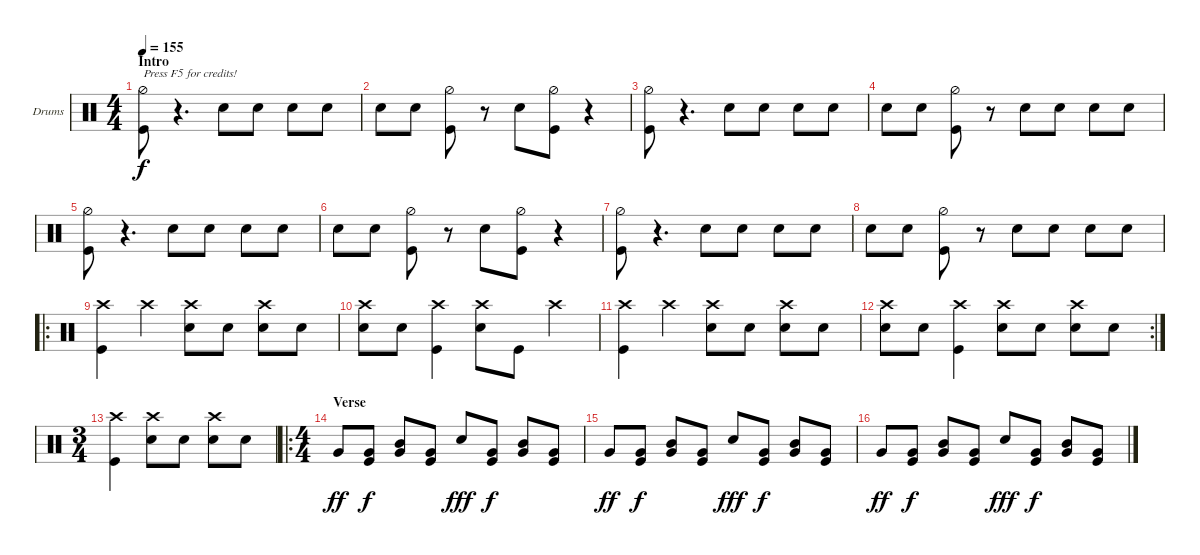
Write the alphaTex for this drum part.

\defaultSystemsLayout 4
\bracketExtendMode groupsimilarinstruments
\firstSystemTrackNameOrientation horizontal
\otherSystemsTrackNameOrientation horizontal
\track ("Ben Tatcher" "Drums") {instrument percussion}
\staff {score}
\articulation defaults
\ts (4 4)
\section ("" "Intro")
\tempo 155
\clef neutral
\scale
0.472222
\ks c
("Hi-Hat (half)" "Kick (hit)").8{txt "Press F5 for credits!" dy f} r.4{d} "Snare (hit) 2".8 "Snare (hit) 2".8 "Snare (hit) 2".8 "Snare (hit) 2".8 |
\scale
0.263889 "Snare (hit) 2".8 "Snare (hit) 2".8 ("Kick (hit)" "Hi-Hat (half)").8 r.8 "Snare (hit) 2".8 ("Kick (hit)" "Hi-Hat (half)").8 r.4 |
\scale
0.263889 ("Hi-Hat (half)" "Kick (hit)").8 r.4{d} "Snare (hit) 2".8 "Snare (hit) 2".8 "Snare (hit) 2".8 "Snare (hit) 2".8 |
\scale
0.333333 "Snare (hit) 2".8 "Snare (hit) 2".8 ("Kick (hit)" "Hi-Hat (half)").8 r.8 "Snare (hit) 2".8 "Snare (hit) 2".8 "Snare (hit) 2".8 "Snare (hit) 2".8 |
\scale
0.333333 ("Hi-Hat (half)" "Kick (hit)").8 r.4{d} "Snare (hit) 2".8 "Snare (hit) 2".8 "Snare (hit) 2".8 "Snare (hit) 2".8 |
\scale
0.333333 "Snare (hit) 2".8 "Snare (hit) 2".8 ("Kick (hit)" "Hi-Hat (half)").8 r.8 "Snare (hit) 2".8 ("Kick (hit)" "Hi-Hat (half)").8 r.4 |
\scale
0.311475 ("Hi-Hat (half)" "Kick (hit)").8 r.4{d} "Snare (hit) 2".8 "Snare (hit) 2".8 "Snare (hit) 2".8 "Snare (hit) 2".8 |
\scale
0.311475 "Snare (hit) 2".8 "Snare (hit) 2".8 ("Kick (hit)" "Hi-Hat (half)").8 r.8 "Snare (hit) 2".8 "Snare (hit) 2".8 "Snare (hit) 2".8 "Snare (hit) 2".8 |
\ro
\scale
0.377049 ("Crash high (hit)" "Kick (hit)").4 "Crash high (hit)".4 ("Snare (hit) 2" "Crash high (hit)").8 "Snare (hit) 2".8 ("Snare (hit) 2" "Crash high (hit)").8 "Snare (hit) 2".8 |
\scale
0.322034 ("Snare (hit) 2" "Crash high (hit)").8 "Snare (hit) 2".8 ("Crash high (hit)" "Kick (hit)").4 ("Snare (hit) 2" "Crash high (hit)").8 "Kick (hit)".8 "Crash high (hit)".4 |
\scale
0.322034 ("Crash high (hit)" "Kick (hit)").4 "Crash high (hit)".4 ("Snare (hit) 2" "Crash high (hit)").8 "Snare (hit) 2".8 ("Snare (hit) 2" "Crash high (hit)").8 "Snare (hit) 2".8 |
\rc 2
\scale
0.355932 ("Snare (hit) 2" "Crash high (hit)").8 "Snare (hit) 2".8 ("Crash high (hit)" "Kick (hit)").4 ("Snare (hit) 2" "Crash high (hit)").8 "Snare (hit) 2".8 ("Crash high (hit)" "Snare (hit) 2").8 "Snare (hit) 2".8 |
\ts (3 4)
\scale
0.373626 ("Kick (hit)" "Crash high (hit)").4 ("Snare (hit) 2" "Crash high (hit)").8 "Snare (hit) 2".8 ("Snare (hit) 2" "Crash high (hit)").8 "Snare (hit) 2".8 |
\ro
\ts (4 4)
\section ("" "Verse")
\scale
0.373626 "Very Low Tom (hit)".8{dy ff} ("Kick (hit)" "Very Low Tom (hit)").8{dy f} ("Very Low Tom (hit)" "Mid Tom (hit)").8 ("Kick (hit)" "Very Low Tom (hit)").8 "Snare (hit) 2".8{dy fff} ("Very Low Tom (hit)" "Kick (hit)").8{dy f} ("Very Low Tom (hit)" "Mid Tom (hit)").8 ("Kick (hit)" "Very Low Tom (hit)").8 |
\scale
0.252747 "Very Low Tom (hit)".8{dy ff} ("Kick (hit)" "Very Low Tom (hit)").8{dy f} ("Very Low Tom (hit)" "Mid Tom (hit)").8 ("Kick (hit)" "Very Low Tom (hit)").8 "Snare (hit) 2".8{dy fff} ("Very Low Tom (hit)" "Kick (hit)").8{dy f} ("Very Low Tom (hit)" "Mid Tom (hit)").8 ("Kick (hit)" "Very Low Tom (hit)").8 |
\scale
0.322034 "Very Low Tom (hit)".8{dy ff} ("Kick (hit)" "Very Low Tom (hit)").8{dy f} ("Very Low Tom (hit)" "Mid Tom (hit)").8 ("Kick (hit)" "Very Low Tom (hit)").8 "Snare (hit) 2".8{dy fff} ("Very Low Tom (hit)" "Kick (hit)").8{dy f} ("Very Low Tom (hit)" "Mid Tom (hit)").8 ("Kick (hit)" "Very Low Tom (hit)").8
